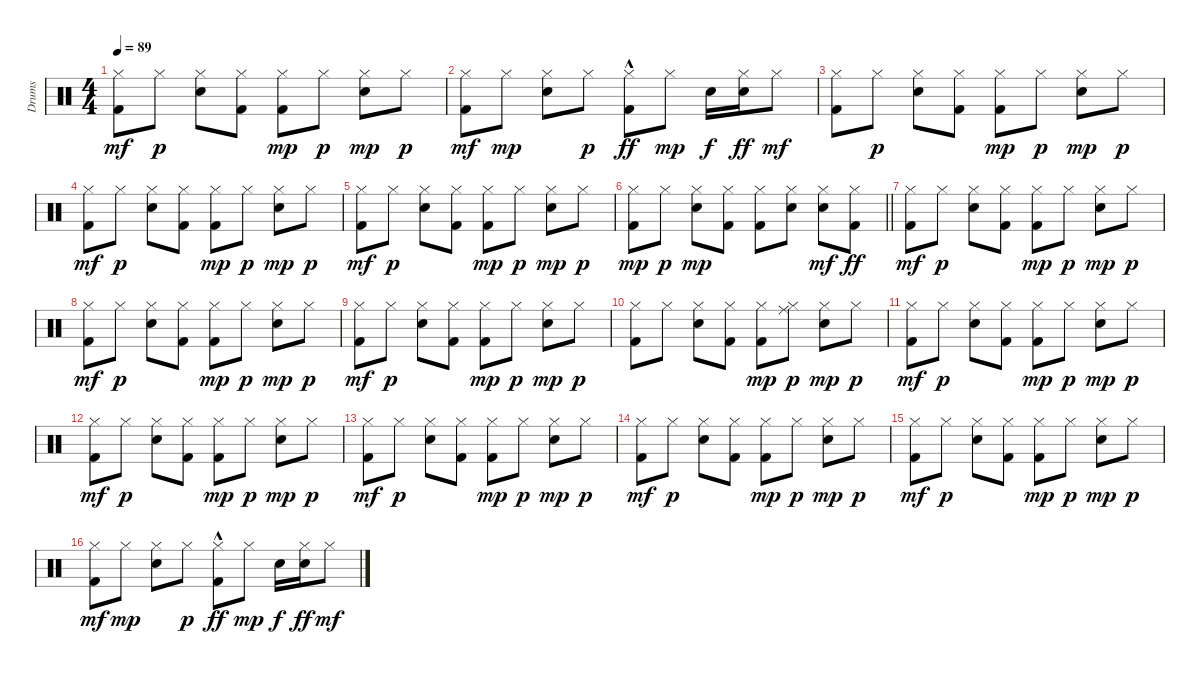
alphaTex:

\track ("Drums" "Drums") {instrument percussion}
\staff {score}
\articulation defaults
\ts (4 4)
\tempo 89
\clef neutral
\ks c
("Hi-Hat (closed)" "Kick (hit) 2").8{dy mf} "Hi-Hat (closed)".8{dy p} ("Snare (hit) 2" "Hi-Hat (closed)").8 ("Kick (hit) 2" "Hi-Hat (closed)").8 ("Kick (hit) 2" "Hi-Hat (closed)").8{dy mp} "Hi-Hat (closed)".8{dy p} ("Snare (hit) 2" "Hi-Hat (closed)").8{dy mp} "Hi-Hat (closed)".8{dy p} |
("Kick (hit) 2" "Hi-Hat (closed)").8{dy mf} "Hi-Hat (closed)".8{dy mp} ("Snare (hit) 2" "Hi-Hat (closed)").8 "Hi-Hat (closed)".8{dy p} ("Hi-Hat (closed)" "Kick (hit) 2"{hac}).8{dy ff} "Hi-Hat (closed)".8{dy mp} "Snare (hit) 2".16{dy f} ("Hi-Hat (closed)" "Snare (hit) 2").16{dy ff} "Hi-Hat (closed)".8{dy mf} |
("Hi-Hat (closed)" "Kick (hit) 2").8 "Hi-Hat (closed)".8{dy p} ("Snare (hit) 2" "Hi-Hat (closed)").8 ("Kick (hit) 2" "Hi-Hat (closed)").8 ("Kick (hit) 2" "Hi-Hat (closed)").8{dy mp} "Hi-Hat (closed)".8{dy p} ("Snare (hit) 2" "Hi-Hat (closed)").8{dy mp} "Hi-Hat (closed)".8{dy p} |
("Hi-Hat (closed)" "Kick (hit) 2").8{dy mf} "Hi-Hat (closed)".8{dy p} ("Snare (hit) 2" "Hi-Hat (closed)").8 ("Kick (hit) 2" "Hi-Hat (closed)").8 ("Kick (hit) 2" "Hi-Hat (closed)").8{dy mp} "Hi-Hat (closed)".8{dy p} ("Snare (hit) 2" "Hi-Hat (closed)").8{dy mp} "Hi-Hat (closed)".8{dy p} |
("Hi-Hat (closed)" "Kick (hit) 2").8{dy mf} "Hi-Hat (closed)".8{dy p} ("Snare (hit) 2" "Hi-Hat (closed)").8 ("Kick (hit) 2" "Hi-Hat (closed)").8 ("Kick (hit) 2" "Hi-Hat (closed)").8{dy mp} "Hi-Hat (closed)".8{dy p} ("Snare (hit) 2" "Hi-Hat (closed)").8{dy mp} "Hi-Hat (closed)".8{dy p} |
\barLineRight lightlight
("Hi-Hat (closed)" "Kick (hit) 2").8{dy mp} "Hi-Hat (closed)".8{dy p} ("Snare (hit) 2" "Hi-Hat (closed)").8{dy mp} ("Kick (hit) 2" "Hi-Hat (closed)").8 ("Kick (hit) 2" "Hi-Hat (closed)").8 ("Snare (hit) 2" "Hi-Hat (closed)").8 ("Snare (hit) 2" "Hi-Hat (closed)").8{dy mf} ("Hi-Hat (closed)" "Kick (hit) 2").8{dy ff} |
("Hi-Hat (closed)" "Kick (hit) 2").8{dy mf} "Hi-Hat (closed)".8{dy p} ("Snare (hit) 2" "Hi-Hat (closed)").8 ("Kick (hit) 2" "Hi-Hat (closed)").8 ("Kick (hit) 2" "Hi-Hat (closed)").8{dy mp} "Hi-Hat (closed)".8{dy p} ("Snare (hit) 2" "Hi-Hat (closed)").8{dy mp} "Hi-Hat (closed)".8{dy p} |
("Hi-Hat (closed)" "Kick (hit) 2").8{dy mf} "Hi-Hat (closed)".8{dy p} ("Snare (hit) 2" "Hi-Hat (closed)").8 ("Kick (hit) 2" "Hi-Hat (closed)").8 ("Kick (hit) 2" "Hi-Hat (closed)").8{dy mp} "Hi-Hat (closed)".8{dy p} ("Snare (hit) 2" "Hi-Hat (closed)").8{dy mp} "Hi-Hat (closed)".8{dy p} |
("Hi-Hat (closed)" "Kick (hit) 2").8{dy mf} "Hi-Hat (closed)".8{dy p} ("Snare (hit) 2" "Hi-Hat (closed)").8 ("Kick (hit) 2" "Hi-Hat (closed)").8 ("Kick (hit) 2" "Hi-Hat (closed)").8{dy mp} "Hi-Hat (closed)".8{dy p} ("Snare (hit) 2" "Hi-Hat (closed)").8{dy mp} "Hi-Hat (closed)".8{dy p} |
("Kick (hit) 2" "Hi-Hat (closed)").8 "Hi-Hat (closed)".8 ("Snare (hit) 2" "Hi-Hat (closed)").8 ("Kick (hit) 2" "Hi-Hat (closed)").8 ("Kick (hit) 2" "Hi-Hat (closed)").8{dy mp} ("Ride (middle)" "Hi-Hat (closed)").8{dy p} ("Snare (hit) 2" "Hi-Hat (closed)").8{dy mp} "Hi-Hat (closed)".8{dy p} |
("Hi-Hat (closed)" "Kick (hit) 2").8{dy mf} "Hi-Hat (closed)".8{dy p} ("Snare (hit) 2" "Hi-Hat (closed)").8 ("Kick (hit) 2" "Hi-Hat (closed)").8 ("Kick (hit) 2" "Hi-Hat (closed)").8{dy mp} "Hi-Hat (closed)".8{dy p} ("Snare (hit) 2" "Hi-Hat (closed)").8{dy mp} "Hi-Hat (closed)".8{dy p} |
("Hi-Hat (closed)" "Kick (hit) 2").8{dy mf} "Hi-Hat (closed)".8{dy p} ("Snare (hit) 2" "Hi-Hat (closed)").8 ("Kick (hit) 2" "Hi-Hat (closed)").8 ("Kick (hit) 2" "Hi-Hat (closed)").8{dy mp} "Hi-Hat (closed)".8{dy p} ("Snare (hit) 2" "Hi-Hat (closed)").8{dy mp} "Hi-Hat (closed)".8{dy p} |
("Hi-Hat (closed)" "Kick (hit) 2").8{dy mf} "Hi-Hat (closed)".8{dy p} ("Snare (hit) 2" "Hi-Hat (closed)").8 ("Kick (hit) 2" "Hi-Hat (closed)").8 ("Kick (hit) 2" "Hi-Hat (closed)").8{dy mp} "Hi-Hat (closed)".8{dy p} ("Snare (hit) 2" "Hi-Hat (closed)").8{dy mp} "Hi-Hat (closed)".8{dy p} |
("Hi-Hat (closed)" "Kick (hit) 2").8{dy mf} "Hi-Hat (closed)".8{dy p} ("Snare (hit) 2" "Hi-Hat (closed)").8 ("Kick (hit) 2" "Hi-Hat (closed)").8 ("Kick (hit) 2" "Hi-Hat (closed)").8{dy mp} "Hi-Hat (closed)".8{dy p} ("Snare (hit) 2" "Hi-Hat (closed)").8{dy mp} "Hi-Hat (closed)".8{dy p} |
("Hi-Hat (closed)" "Kick (hit) 2").8{dy mf} "Hi-Hat (closed)".8{dy p} ("Snare (hit) 2" "Hi-Hat (closed)").8 ("Kick (hit) 2" "Hi-Hat (closed)").8 ("Kick (hit) 2" "Hi-Hat (closed)").8{dy mp} "Hi-Hat (closed)".8{dy p} ("Snare (hit) 2" "Hi-Hat (closed)").8{dy mp} "Hi-Hat (closed)".8{dy p} |
("Kick (hit) 2" "Hi-Hat (closed)").8{dy mf} "Hi-Hat (closed)".8{dy mp} ("Snare (hit) 2" "Hi-Hat (closed)").8 "Hi-Hat (closed)".8{dy p} ("Hi-Hat (closed)" "Kick (hit) 2"{hac}).8{dy ff} "Hi-Hat (closed)".8{dy mp} "Snare (hit) 2".16{dy f} ("Hi-Hat (closed)" "Snare (hit) 2").16{dy ff} "Hi-Hat (closed)".8{dy mf}
